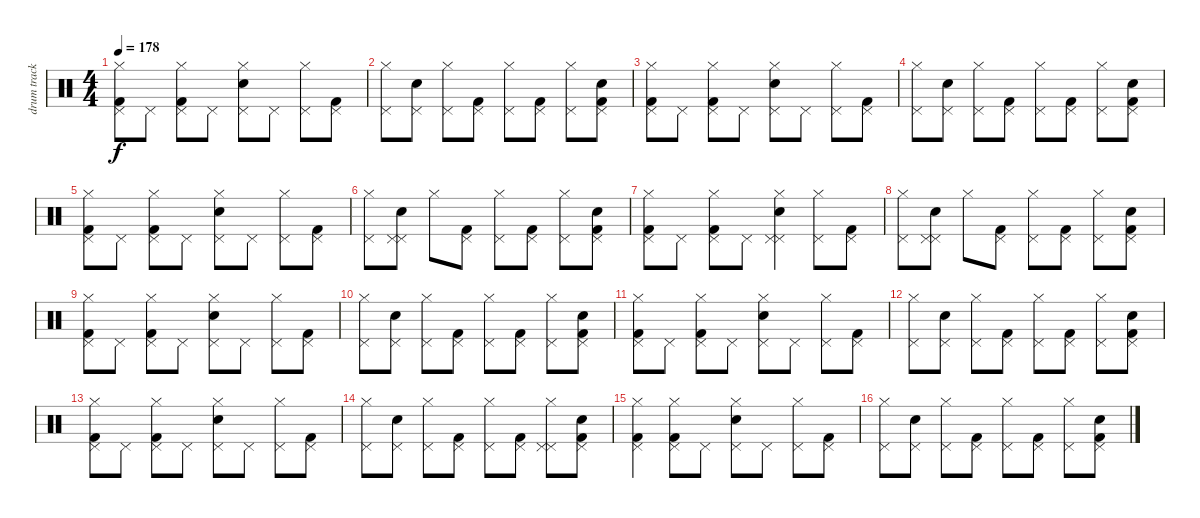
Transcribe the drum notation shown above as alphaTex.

\track ("drum track" "drum track") {instrument percussion}
\staff {score}
\articulation defaults
\ts (4 4)
\tempo 178
\clef neutral
\ks c
("Hi-Hat (closed)" "Pedal Hi-Hat (hit)" "Kick (hit) 2").8{dy f} "Pedal Hi-Hat (hit)".8 ("Hi-Hat (closed)" "Pedal Hi-Hat (hit)" "Kick (hit) 2").8 "Pedal Hi-Hat (hit)".8 ("Snare (hit) 2" "Hi-Hat (closed)" "Pedal Hi-Hat (hit)").8 "Pedal Hi-Hat (hit)".8 ("Hi-Hat (closed)" "Pedal Hi-Hat (hit)").8 ("Pedal Hi-Hat (hit)" "Kick (hit) 2").8 |
("Hi-Hat (closed)" "Pedal Hi-Hat (hit)").8 ("Snare (hit) 2" "Pedal Hi-Hat (hit)").8 ("Hi-Hat (closed)" "Pedal Hi-Hat (hit)").8 ("Kick (hit) 2" "Pedal Hi-Hat (hit)").8 ("Hi-Hat (closed)" "Pedal Hi-Hat (hit)").8 ("Kick (hit) 2" "Pedal Hi-Hat (hit)").8 ("Hi-Hat (closed)" "Pedal Hi-Hat (hit)").8 ("Kick (hit) 2" "Snare (hit) 2" "Pedal Hi-Hat (hit)").8 |
("Hi-Hat (closed)" "Pedal Hi-Hat (hit)" "Kick (hit) 2").8 "Pedal Hi-Hat (hit)".8 ("Hi-Hat (closed)" "Pedal Hi-Hat (hit)" "Kick (hit) 2").8 "Pedal Hi-Hat (hit)".8 ("Snare (hit) 2" "Hi-Hat (closed)" "Pedal Hi-Hat (hit)").8 "Pedal Hi-Hat (hit)".8 ("Hi-Hat (closed)" "Pedal Hi-Hat (hit)").8 ("Pedal Hi-Hat (hit)" "Kick (hit) 2").8 |
("Hi-Hat (closed)" "Pedal Hi-Hat (hit)").8 ("Snare (hit) 2" "Pedal Hi-Hat (hit)").8 ("Hi-Hat (closed)" "Pedal Hi-Hat (hit)").8 ("Kick (hit) 2" "Pedal Hi-Hat (hit)").8 ("Hi-Hat (closed)" "Pedal Hi-Hat (hit)").8 ("Kick (hit) 2" "Pedal Hi-Hat (hit)").8 ("Hi-Hat (closed)" "Pedal Hi-Hat (hit)").8 ("Kick (hit) 2" "Snare (hit) 2" "Pedal Hi-Hat (hit)").8 |
("Hi-Hat (closed)" "Pedal Hi-Hat (hit)" "Kick (hit) 2").8 "Pedal Hi-Hat (hit)".8 ("Hi-Hat (closed)" "Pedal Hi-Hat (hit)" "Kick (hit) 2").8 "Pedal Hi-Hat (hit)".8 ("Snare (hit) 2" "Hi-Hat (closed)" "Pedal Hi-Hat (hit)").8 "Pedal Hi-Hat (hit)".8 ("Hi-Hat (closed)" "Pedal Hi-Hat (hit)").8 ("Pedal Hi-Hat (hit)" "Kick (hit) 2").8 |
("Hi-Hat (closed)" "Pedal Hi-Hat (hit)").8 ("Snare (hit) 2" "Pedal Hi-Hat (hit)" "Pedal Hi-Hat (hit)").8 "Hi-Hat (closed)".8 ("Kick (hit) 2" "Pedal Hi-Hat (hit)").8 ("Hi-Hat (closed)" "Pedal Hi-Hat (hit)").8 ("Kick (hit) 2" "Pedal Hi-Hat (hit)").8 ("Hi-Hat (closed)" "Pedal Hi-Hat (hit)").8 ("Kick (hit) 2" "Snare (hit) 2" "Pedal Hi-Hat (hit)").8 |
("Hi-Hat (closed)" "Pedal Hi-Hat (hit)" "Kick (hit) 2").8 "Pedal Hi-Hat (hit)".8 ("Hi-Hat (closed)" "Pedal Hi-Hat (hit)" "Kick (hit) 2").8 "Pedal Hi-Hat (hit)".8 ("Snare (hit) 2" "Hi-Hat (closed)" "Pedal Hi-Hat (hit)" "Pedal Hi-Hat (hit)").4 ("Hi-Hat (closed)" "Pedal Hi-Hat (hit)").8 ("Pedal Hi-Hat (hit)" "Kick (hit) 2").8 |
("Hi-Hat (closed)" "Pedal Hi-Hat (hit)").8 ("Snare (hit) 2" "Pedal Hi-Hat (hit)" "Pedal Hi-Hat (hit)").8 "Hi-Hat (closed)".8 ("Kick (hit) 2" "Pedal Hi-Hat (hit)").8 ("Hi-Hat (closed)" "Pedal Hi-Hat (hit)").8 ("Kick (hit) 2" "Pedal Hi-Hat (hit)").8 ("Hi-Hat (closed)" "Pedal Hi-Hat (hit)").8 ("Kick (hit) 2" "Snare (hit) 2" "Pedal Hi-Hat (hit)").8 |
("Hi-Hat (closed)" "Pedal Hi-Hat (hit)" "Kick (hit) 2").8 "Pedal Hi-Hat (hit)".8 ("Hi-Hat (closed)" "Pedal Hi-Hat (hit)" "Kick (hit) 2").8 "Pedal Hi-Hat (hit)".8 ("Snare (hit) 2" "Hi-Hat (closed)" "Pedal Hi-Hat (hit)").8 "Pedal Hi-Hat (hit)".8 ("Hi-Hat (closed)" "Pedal Hi-Hat (hit)").8 ("Pedal Hi-Hat (hit)" "Kick (hit) 2").8 |
("Hi-Hat (closed)" "Pedal Hi-Hat (hit)").8 ("Snare (hit) 2" "Pedal Hi-Hat (hit)").8 ("Hi-Hat (closed)" "Pedal Hi-Hat (hit)").8 ("Kick (hit) 2" "Pedal Hi-Hat (hit)").8 ("Hi-Hat (closed)" "Pedal Hi-Hat (hit)").8 ("Kick (hit) 2" "Pedal Hi-Hat (hit)").8 ("Hi-Hat (closed)" "Pedal Hi-Hat (hit)").8 ("Kick (hit) 2" "Snare (hit) 2" "Pedal Hi-Hat (hit)").8 |
("Hi-Hat (closed)" "Pedal Hi-Hat (hit)" "Kick (hit) 2").8 "Pedal Hi-Hat (hit)".8 ("Hi-Hat (closed)" "Pedal Hi-Hat (hit)" "Kick (hit) 2").8 "Pedal Hi-Hat (hit)".8 ("Snare (hit) 2" "Hi-Hat (closed)" "Pedal Hi-Hat (hit)").8 "Pedal Hi-Hat (hit)".8 ("Hi-Hat (closed)" "Pedal Hi-Hat (hit)").8 ("Pedal Hi-Hat (hit)" "Kick (hit) 2").8 |
("Hi-Hat (closed)" "Pedal Hi-Hat (hit)").8 ("Snare (hit) 2" "Pedal Hi-Hat (hit)").8 ("Hi-Hat (closed)" "Pedal Hi-Hat (hit)").8 ("Kick (hit) 2" "Pedal Hi-Hat (hit)").8 ("Hi-Hat (closed)" "Pedal Hi-Hat (hit)").8 ("Kick (hit) 2" "Pedal Hi-Hat (hit)").8 ("Hi-Hat (closed)" "Pedal Hi-Hat (hit)").8 ("Kick (hit) 2" "Snare (hit) 2" "Pedal Hi-Hat (hit)").8 |
("Hi-Hat (closed)" "Pedal Hi-Hat (hit)" "Kick (hit) 2").8 "Pedal Hi-Hat (hit)".8 ("Hi-Hat (closed)" "Pedal Hi-Hat (hit)" "Kick (hit) 2").8 "Pedal Hi-Hat (hit)".8 ("Snare (hit) 2" "Hi-Hat (closed)" "Pedal Hi-Hat (hit)").8 "Pedal Hi-Hat (hit)".8 ("Hi-Hat (closed)" "Pedal Hi-Hat (hit)").8 ("Pedal Hi-Hat (hit)" "Kick (hit) 2").8 |
("Hi-Hat (closed)" "Pedal Hi-Hat (hit)").8 ("Snare (hit) 2" "Pedal Hi-Hat (hit)").8 ("Hi-Hat (closed)" "Pedal Hi-Hat (hit)").8 ("Kick (hit) 2" "Pedal Hi-Hat (hit)").8 ("Hi-Hat (closed)" "Pedal Hi-Hat (hit)").8 ("Kick (hit) 2" "Pedal Hi-Hat (hit)").8 ("Hi-Hat (closed)" "Pedal Hi-Hat (hit)" "Pedal Hi-Hat (hit)").8 ("Kick (hit) 2" "Snare (hit) 2" "Pedal Hi-Hat (hit)").8 |
("Hi-Hat (closed)" "Pedal Hi-Hat (hit)" "Kick (hit) 2").4 ("Hi-Hat (closed)" "Pedal Hi-Hat (hit)" "Kick (hit) 2").8 "Pedal Hi-Hat (hit)".8 ("Snare (hit) 2" "Hi-Hat (closed)" "Pedal Hi-Hat (hit)").8 "Pedal Hi-Hat (hit)".8 ("Hi-Hat (closed)" "Pedal Hi-Hat (hit)").8 ("Pedal Hi-Hat (hit)" "Kick (hit) 2").8 |
("Hi-Hat (closed)" "Pedal Hi-Hat (hit)").8 ("Snare (hit) 2" "Pedal Hi-Hat (hit)").8 ("Hi-Hat (closed)" "Pedal Hi-Hat (hit)").8 ("Kick (hit) 2" "Pedal Hi-Hat (hit)").8 ("Hi-Hat (closed)" "Pedal Hi-Hat (hit)").8 ("Kick (hit) 2" "Pedal Hi-Hat (hit)").8 ("Hi-Hat (closed)" "Pedal Hi-Hat (hit)").8 ("Kick (hit) 2" "Snare (hit) 2" "Pedal Hi-Hat (hit)").8
